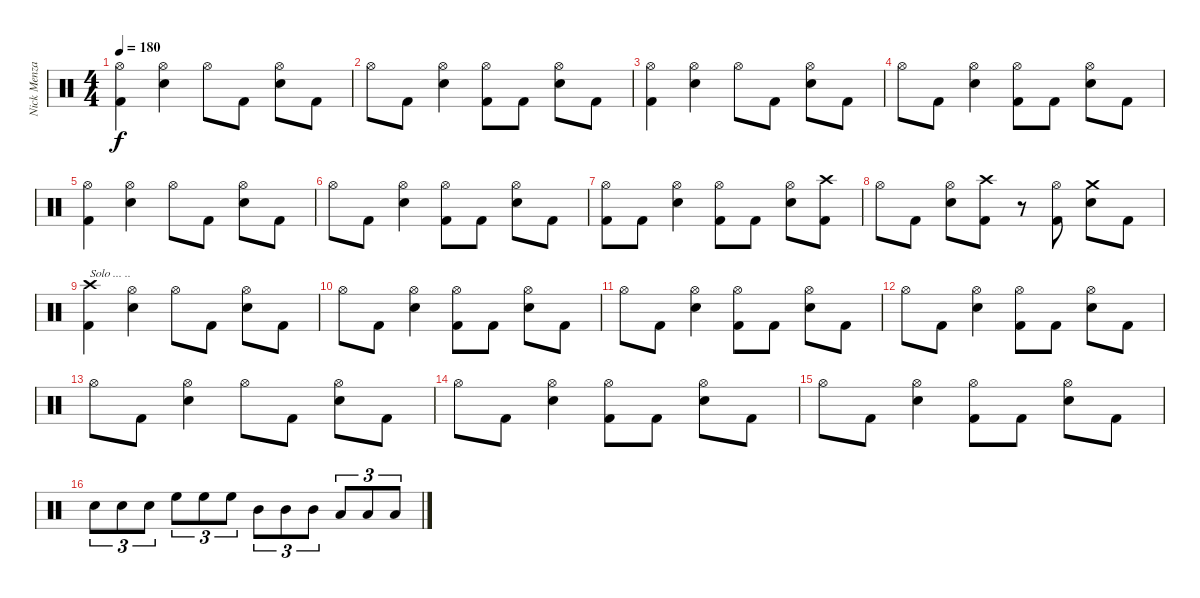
\track ("Nick Menza" "Nick Menza") {instrument percussion}
\staff {score}
\articulation defaults
\ts (4 4)
\tempo 180
\clef neutral
\ks c
("Hi-Hat (open)" "Kick (hit) 2").4{dy f} ("Hi-Hat (open)" "Snare (hit) 2").4 "Hi-Hat (open)".8 "Kick (hit) 2".8 ("Hi-Hat (open)" "Snare (hit) 2").8 "Kick (hit) 2".8 |
"Hi-Hat (open)".8 "Kick (hit) 2".8 ("Hi-Hat (open)" "Snare (hit) 2").4 ("Hi-Hat (open)" "Kick (hit) 2").8 "Kick (hit) 2".8 ("Hi-Hat (open)" "Snare (hit) 2").8 "Kick (hit) 2".8 |
("Hi-Hat (open)" "Kick (hit) 2").4 ("Hi-Hat (open)" "Snare (hit) 2").4 "Hi-Hat (open)".8 "Kick (hit) 2".8 ("Hi-Hat (open)" "Snare (hit) 2").8 "Kick (hit) 2".8 |
"Hi-Hat (open)".8 "Kick (hit) 2".8 ("Hi-Hat (open)" "Snare (hit) 2").4 ("Hi-Hat (open)" "Kick (hit) 2").8 "Kick (hit) 2".8 ("Hi-Hat (open)" "Snare (hit) 2").8 "Kick (hit) 2".8 |
("Hi-Hat (open)" "Kick (hit) 2").4 ("Hi-Hat (open)" "Snare (hit) 2").4 "Hi-Hat (open)".8 "Kick (hit) 2".8 ("Hi-Hat (open)" "Snare (hit) 2").8 "Kick (hit) 2".8 |
"Hi-Hat (open)".8 "Kick (hit) 2".8 ("Hi-Hat (open)" "Snare (hit) 2").4 ("Hi-Hat (open)" "Kick (hit) 2").8 "Kick (hit) 2".8 ("Hi-Hat (open)" "Snare (hit) 2").8 "Kick (hit) 2".8 |
("Hi-Hat (open)" "Kick (hit) 2").8 "Kick (hit) 2".8 ("Hi-Hat (open)" "Snare (hit) 2").4 ("Hi-Hat (open)" "Kick (hit) 2").8 "Kick (hit) 2".8 ("Hi-Hat (open)" "Snare (hit) 2").8 ("Crash high (hit)" "Kick (hit) 2").8 |
"Hi-Hat (open)".8 "Kick (hit) 2".8 ("Hi-Hat (open)" "Snare (hit) 2").8 ("Crash high (hit)" "Kick (hit) 2").8 r.8 ("Hi-Hat (open)" "Kick (hit) 2").8 ("Crash medium (hit)" "Snare (hit) 2").8 "Kick (hit) 2".8 |
("Crash high (hit)" "Kick (hit) 2").4{txt "Solo ... .."} ("Hi-Hat (open)" "Snare (hit) 2").4 "Hi-Hat (open)".8 "Kick (hit) 2".8 ("Hi-Hat (open)" "Snare (hit) 2").8 "Kick (hit) 2".8 |
"Hi-Hat (open)".8 "Kick (hit) 2".8 ("Hi-Hat (open)" "Snare (hit) 2").4 ("Hi-Hat (open)" "Kick (hit) 2").8 "Kick (hit) 2".8 ("Hi-Hat (open)" "Snare (hit) 2").8 "Kick (hit) 2".8 |
"Hi-Hat (open)".8 "Kick (hit) 2".8 ("Hi-Hat (open)" "Snare (hit) 2").4 ("Hi-Hat (open)" "Kick (hit) 2").8 "Kick (hit) 2".8 ("Hi-Hat (open)" "Snare (hit) 2").8 "Kick (hit) 2".8 |
"Hi-Hat (open)".8 "Kick (hit) 2".8 ("Hi-Hat (open)" "Snare (hit) 2").4 ("Hi-Hat (open)" "Kick (hit) 2").8 "Kick (hit) 2".8 ("Hi-Hat (open)" "Snare (hit) 2").8 "Kick (hit) 2".8 |
"Hi-Hat (open)".8 "Kick (hit) 2".8 ("Hi-Hat (open)" "Snare (hit) 2").4 "Hi-Hat (open)".8 "Kick (hit) 2".8 ("Hi-Hat (open)" "Snare (hit) 2").8 "Kick (hit) 2".8 |
"Hi-Hat (open)".8 "Kick (hit) 2".8 ("Hi-Hat (open)" "Snare (hit) 2").4 ("Hi-Hat (open)" "Kick (hit) 2").8 "Kick (hit) 2".8 ("Hi-Hat (open)" "Snare (hit) 2").8 "Kick (hit) 2".8 |
"Hi-Hat (open)".8 "Kick (hit) 2".8 ("Hi-Hat (open)" "Snare (hit) 2").4 ("Hi-Hat (open)" "Kick (hit) 2").8 "Kick (hit) 2".8 ("Hi-Hat (open)" "Snare (hit) 2").8 "Kick (hit) 2".8 |
"Snare (hit) 2".8{tu (3 2)} "Snare (hit) 2".8{tu (3 2)} "Snare (hit) 2".8{tu (3 2)} "High Floor Tom (hit)".8{tu (3 2)} "High Floor Tom (hit)".8{tu (3 2)} "High Floor Tom (hit)".8{tu (3 2)} "Mid Tom (hit)".8{tu (3 2)} "Mid Tom (hit)".8{tu (3 2)} "Mid Tom (hit)".8{tu (3 2)} "Low Tom (hit)".8{tu (3 2)} "Low Tom (hit)".8{tu (3 2)} "Low Tom (hit)".8{tu (3 2)}
